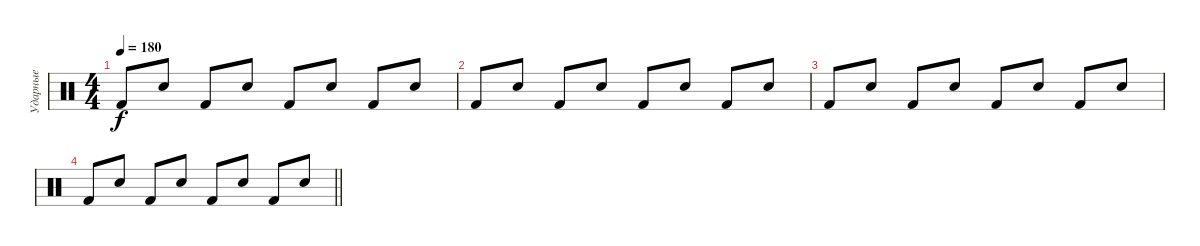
\track ("Ударные" "Ударные") {instrument percussion}
\staff {score}
\articulation defaults
\ts (4 4)
\tempo 180
\clef neutral
\ks c "Kick (hit) 2".8{dy f} "Snare (hit) 2".8 "Kick (hit) 2".8 "Snare (hit) 2".8 "Kick (hit) 2".8 "Snare (hit) 2".8 "Kick (hit) 2".8 "Snare (hit) 2".8
|
"Kick (hit) 2".8 "Snare (hit) 2".8 "Kick (hit) 2".8 "Snare (hit) 2".8 "Kick (hit) 2".8 "Snare (hit) 2".8 "Kick (hit) 2".8 "Snare (hit) 2".8 |
"Kick (hit) 2".8 "Snare (hit) 2".8 "Kick (hit) 2".8 "Snare (hit) 2".8 "Kick (hit) 2".8 "Snare (hit) 2".8 "Kick (hit) 2".8 "Snare (hit) 2".8 |
\barLineRight lightlight "Kick (hit) 2".8 "Snare (hit) 2".8 "Kick (hit) 2".8 "Snare (hit) 2".8 "Kick (hit) 2".8 "Snare (hit) 2".8 "Kick (hit) 2".8 "Snare (hit) 2".8
